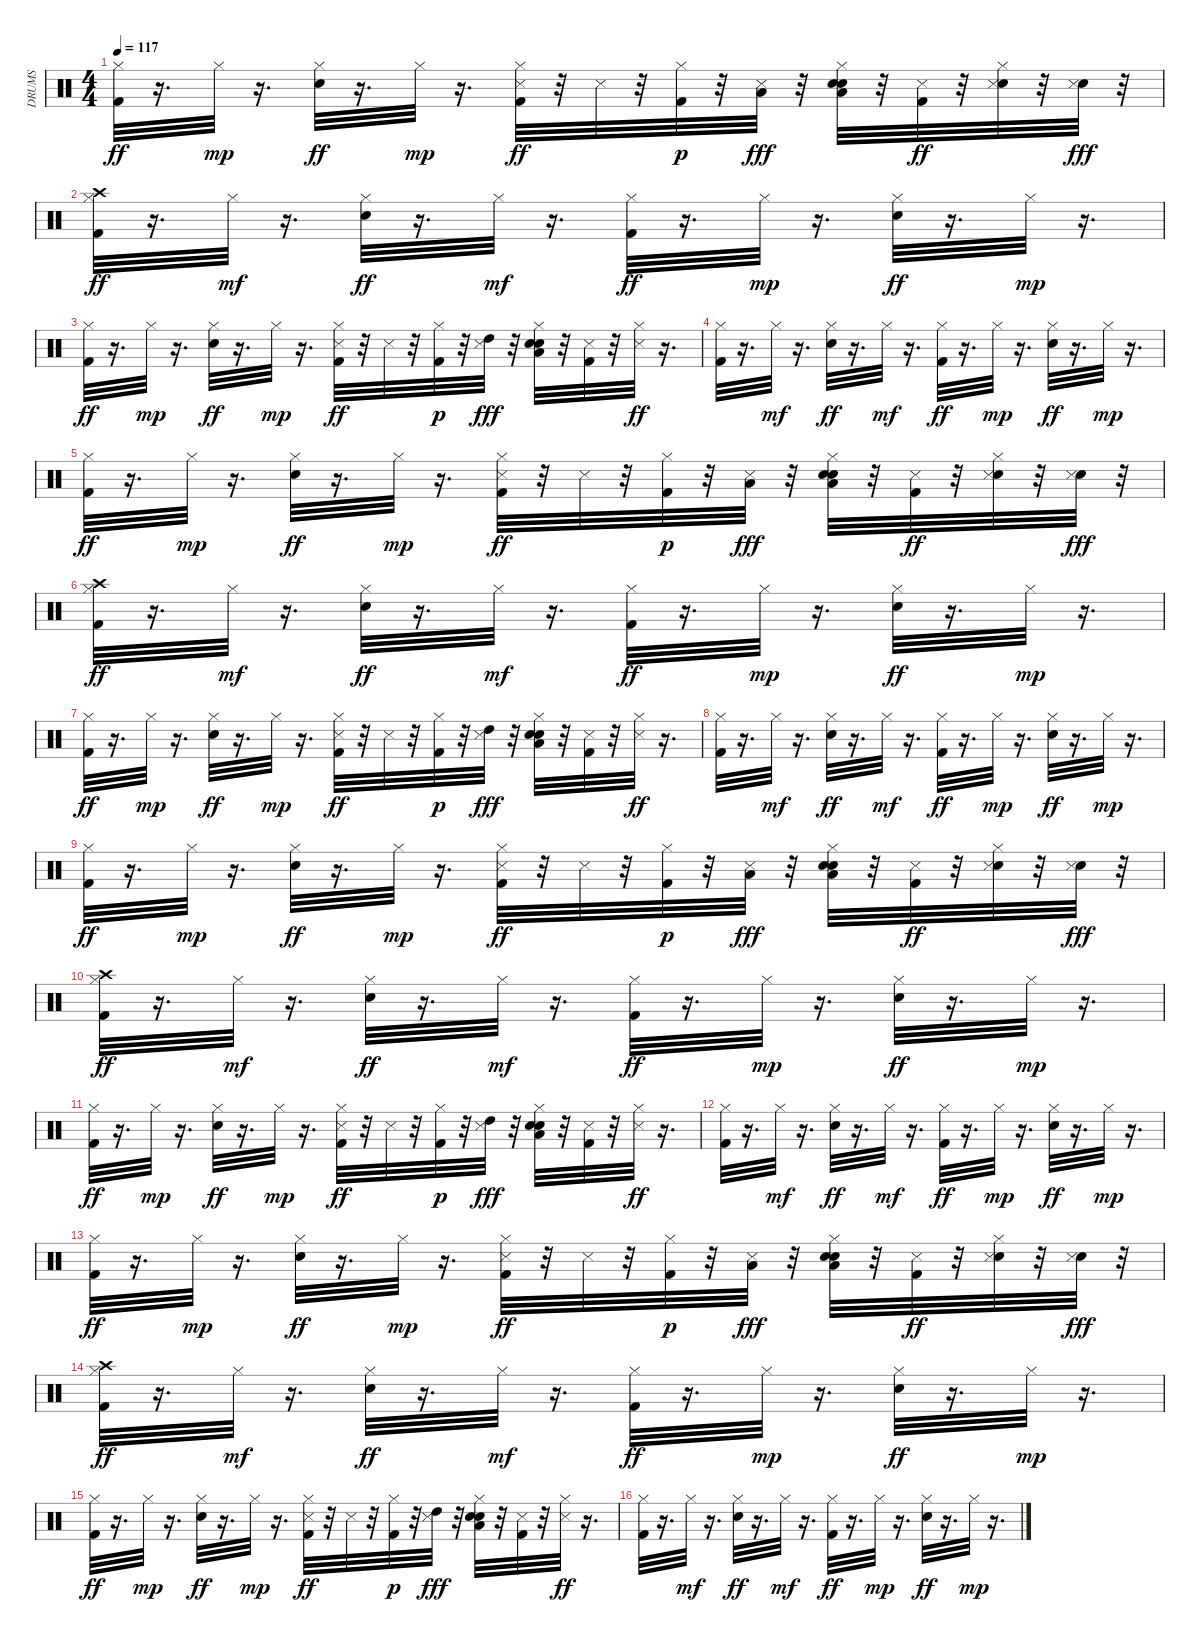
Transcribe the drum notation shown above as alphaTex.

\track ("DRUMS" "DRUMS") {instrument percussion}
\staff {score}
\articulation defaults
\ts (4 4)
\tempo 117
\clef neutral
\ks c
("Kick (hit) 2" "Hi-Hat (closed)").32{dy ff} r.16{d} "Hi-Hat (closed)".32{dy mp} r.16{d} ("Snare (hit) 2" "Hi-Hat (closed)").32{dy ff} r.16{d} "Hi-Hat (closed)".32{dy mp} r.16{d} ("Kick (hit) 2" "Hi-Hat (closed)" "Snare (side stick) 3").32{dy ff} r.32 "Snare (side stick) 3".32 r.32 ("Kick (hit) 2" "Hi-Hat (closed)").32{dy p} r.32 ("Low Tom (hit)" "Snare (side stick) 3").32{dy fff} r.32 ("Snare (hit) 2" "Hi-Hat (closed)" "Low Floor Tom (hit)" "Hand Clap (hit)").32 r.32 ("Kick (hit) 2" "Snare (side stick) 3").32{dy ff} r.32 ("Snare (hit) 2" "Hi-Hat (closed)" "Snare (side stick) 3").32 r.32 ("Snare (hit) 2" "Snare (side stick) 3").32{dy fff} r.32 |
("Crash high (hit)" "Kick (hit) 2" "Hi-Hat (closed)").32{dy ff} r.16{d} "Hi-Hat (closed)".32{dy mf} r.16{d} ("Snare (hit) 2" "Hi-Hat (closed)").32{dy ff} r.16{d} "Hi-Hat (closed)".32{dy mf} r.16{d} ("Kick (hit) 2" "Hi-Hat (closed)").32{dy ff} r.16{d} "Hi-Hat (closed)".32{dy mp} r.16{d} ("Snare (hit) 2" "Hi-Hat (closed)").32{dy ff} r.16{d} "Hi-Hat (closed)".32{dy mp} r.16{d} |
("Kick (hit) 2" "Hi-Hat (closed)").32{dy ff} r.16{d} "Hi-Hat (closed)".32{dy mp} r.16{d} ("Snare (hit) 2" "Hi-Hat (closed)").32{dy ff} r.16{d} "Hi-Hat (closed)".32{dy mp} r.16{d} ("Kick (hit) 2" "Hi-Hat (closed)" "Snare (side stick) 3").32{dy ff} r.32 "Snare (side stick) 3".32 r.32 ("Kick (hit) 2" "Hi-Hat (closed)").32{dy p} r.32 ("High Tom (hit)" "Snare (side stick) 3").32{dy fff} r.32 ("Snare (hit) 2" "Hi-Hat (closed)" "Low Tom (hit)" "Hand Clap (hit)").32 r.32 ("Kick (hit) 2" "Snare (side stick) 3").32 r.32 ("Hi-Hat (closed)" "Snare (side stick) 3").32{dy ff} r.16{d} |
("Kick (hit) 2" "Hi-Hat (closed)").32 r.16{d} "Hi-Hat (closed)".32{dy mf} r.16{d} ("Snare (hit) 2" "Hi-Hat (closed)").32{dy ff} r.16{d} "Hi-Hat (closed)".32{dy mf} r.16{d} ("Kick (hit) 2" "Hi-Hat (closed)").32{dy ff} r.16{d} "Hi-Hat (closed)".32{dy mp} r.16{d} ("Snare (hit) 2" "Hi-Hat (closed)").32{dy ff} r.16{d} "Hi-Hat (closed)".32{dy mp} r.16{d} |
("Kick (hit) 2" "Hi-Hat (closed)").32{dy ff} r.16{d} "Hi-Hat (closed)".32{dy mp} r.16{d} ("Snare (hit) 2" "Hi-Hat (closed)").32{dy ff} r.16{d} "Hi-Hat (closed)".32{dy mp} r.16{d} ("Kick (hit) 2" "Hi-Hat (closed)" "Snare (side stick) 3").32{dy ff} r.32 "Snare (side stick) 3".32 r.32 ("Kick (hit) 2" "Hi-Hat (closed)").32{dy p} r.32 ("Low Tom (hit)" "Snare (side stick) 3").32{dy fff} r.32 ("Snare (hit) 2" "Hi-Hat (closed)" "Low Floor Tom (hit)" "Hand Clap (hit)").32 r.32 ("Kick (hit) 2" "Snare (side stick) 3").32{dy ff} r.32 ("Snare (hit) 2" "Hi-Hat (closed)" "Snare (side stick) 3").32 r.32 ("Snare (hit) 2" "Snare (side stick) 3").32{dy fff} r.32 |
("Crash high (hit)" "Kick (hit) 2" "Hi-Hat (closed)").32{dy ff} r.16{d} "Hi-Hat (closed)".32{dy mf} r.16{d} ("Snare (hit) 2" "Hi-Hat (closed)").32{dy ff} r.16{d} "Hi-Hat (closed)".32{dy mf} r.16{d} ("Kick (hit) 2" "Hi-Hat (closed)").32{dy ff} r.16{d} "Hi-Hat (closed)".32{dy mp} r.16{d} ("Snare (hit) 2" "Hi-Hat (closed)").32{dy ff} r.16{d} "Hi-Hat (closed)".32{dy mp} r.16{d} |
("Kick (hit) 2" "Hi-Hat (closed)").32{dy ff} r.16{d} "Hi-Hat (closed)".32{dy mp} r.16{d} ("Snare (hit) 2" "Hi-Hat (closed)").32{dy ff} r.16{d} "Hi-Hat (closed)".32{dy mp} r.16{d} ("Kick (hit) 2" "Hi-Hat (closed)" "Snare (side stick) 3").32{dy ff} r.32 "Snare (side stick) 3".32 r.32 ("Kick (hit) 2" "Hi-Hat (closed)").32{dy p} r.32 ("High Tom (hit)" "Snare (side stick) 3").32{dy fff} r.32 ("Snare (hit) 2" "Hi-Hat (closed)" "Low Tom (hit)" "Hand Clap (hit)").32 r.32 ("Kick (hit) 2" "Snare (side stick) 3").32 r.32 ("Hi-Hat (closed)" "Snare (side stick) 3").32{dy ff} r.16{d} |
("Kick (hit) 2" "Hi-Hat (closed)").32 r.16{d} "Hi-Hat (closed)".32{dy mf} r.16{d} ("Snare (hit) 2" "Hi-Hat (closed)").32{dy ff} r.16{d} "Hi-Hat (closed)".32{dy mf} r.16{d} ("Kick (hit) 2" "Hi-Hat (closed)").32{dy ff} r.16{d} "Hi-Hat (closed)".32{dy mp} r.16{d} ("Snare (hit) 2" "Hi-Hat (closed)").32{dy ff} r.16{d} "Hi-Hat (closed)".32{dy mp} r.16{d} |
("Kick (hit) 2" "Hi-Hat (closed)").32{dy ff} r.16{d} "Hi-Hat (closed)".32{dy mp} r.16{d} ("Snare (hit) 2" "Hi-Hat (closed)").32{dy ff} r.16{d} "Hi-Hat (closed)".32{dy mp} r.16{d} ("Kick (hit) 2" "Hi-Hat (closed)" "Snare (side stick) 3").32{dy ff} r.32 "Snare (side stick) 3".32 r.32 ("Kick (hit) 2" "Hi-Hat (closed)").32{dy p} r.32 ("Low Tom (hit)" "Snare (side stick) 3").32{dy fff} r.32 ("Snare (hit) 2" "Hi-Hat (closed)" "Low Floor Tom (hit)" "Hand Clap (hit)").32 r.32 ("Kick (hit) 2" "Snare (side stick) 3").32{dy ff} r.32 ("Snare (hit) 2" "Hi-Hat (closed)" "Snare (side stick) 3").32 r.32 ("Snare (hit) 2" "Snare (side stick) 3").32{dy fff} r.32 |
("Crash high (hit)" "Kick (hit) 2" "Hi-Hat (closed)").32{dy ff} r.16{d} "Hi-Hat (closed)".32{dy mf} r.16{d} ("Snare (hit) 2" "Hi-Hat (closed)").32{dy ff} r.16{d} "Hi-Hat (closed)".32{dy mf} r.16{d} ("Kick (hit) 2" "Hi-Hat (closed)").32{dy ff} r.16{d} "Hi-Hat (closed)".32{dy mp} r.16{d} ("Snare (hit) 2" "Hi-Hat (closed)").32{dy ff} r.16{d} "Hi-Hat (closed)".32{dy mp} r.16{d} |
("Kick (hit) 2" "Hi-Hat (closed)").32{dy ff} r.16{d} "Hi-Hat (closed)".32{dy mp} r.16{d} ("Snare (hit) 2" "Hi-Hat (closed)").32{dy ff} r.16{d} "Hi-Hat (closed)".32{dy mp} r.16{d} ("Kick (hit) 2" "Hi-Hat (closed)" "Snare (side stick) 3").32{dy ff} r.32 "Snare (side stick) 3".32 r.32 ("Kick (hit) 2" "Hi-Hat (closed)").32{dy p} r.32 ("High Tom (hit)" "Snare (side stick) 3").32{dy fff} r.32 ("Snare (hit) 2" "Hi-Hat (closed)" "Low Tom (hit)" "Hand Clap (hit)").32 r.32 ("Kick (hit) 2" "Snare (side stick) 3").32 r.32 ("Hi-Hat (closed)" "Snare (side stick) 3").32{dy ff} r.16{d} |
("Kick (hit) 2" "Hi-Hat (closed)").32 r.16{d} "Hi-Hat (closed)".32{dy mf} r.16{d} ("Snare (hit) 2" "Hi-Hat (closed)").32{dy ff} r.16{d} "Hi-Hat (closed)".32{dy mf} r.16{d} ("Kick (hit) 2" "Hi-Hat (closed)").32{dy ff} r.16{d} "Hi-Hat (closed)".32{dy mp} r.16{d} ("Snare (hit) 2" "Hi-Hat (closed)").32{dy ff} r.16{d} "Hi-Hat (closed)".32{dy mp} r.16{d} |
("Kick (hit) 2" "Hi-Hat (closed)").32{dy ff} r.16{d} "Hi-Hat (closed)".32{dy mp} r.16{d} ("Snare (hit) 2" "Hi-Hat (closed)").32{dy ff} r.16{d} "Hi-Hat (closed)".32{dy mp} r.16{d} ("Kick (hit) 2" "Hi-Hat (closed)" "Snare (side stick) 3").32{dy ff} r.32 "Snare (side stick) 3".32 r.32 ("Kick (hit) 2" "Hi-Hat (closed)").32{dy p} r.32 ("Low Tom (hit)" "Snare (side stick) 3").32{dy fff} r.32 ("Snare (hit) 2" "Hi-Hat (closed)" "Low Floor Tom (hit)" "Hand Clap (hit)").32 r.32 ("Kick (hit) 2" "Snare (side stick) 3").32{dy ff} r.32 ("Snare (hit) 2" "Hi-Hat (closed)" "Snare (side stick) 3").32 r.32 ("Snare (hit) 2" "Snare (side stick) 3").32{dy fff} r.32 |
("Crash high (hit)" "Kick (hit) 2" "Hi-Hat (closed)").32{dy ff} r.16{d} "Hi-Hat (closed)".32{dy mf} r.16{d} ("Snare (hit) 2" "Hi-Hat (closed)").32{dy ff} r.16{d} "Hi-Hat (closed)".32{dy mf} r.16{d} ("Kick (hit) 2" "Hi-Hat (closed)").32{dy ff} r.16{d} "Hi-Hat (closed)".32{dy mp} r.16{d} ("Snare (hit) 2" "Hi-Hat (closed)").32{dy ff} r.16{d} "Hi-Hat (closed)".32{dy mp} r.16{d} |
("Kick (hit) 2" "Hi-Hat (closed)").32{dy ff} r.16{d} "Hi-Hat (closed)".32{dy mp} r.16{d} ("Snare (hit) 2" "Hi-Hat (closed)").32{dy ff} r.16{d} "Hi-Hat (closed)".32{dy mp} r.16{d} ("Kick (hit) 2" "Hi-Hat (closed)" "Snare (side stick) 3").32{dy ff} r.32 "Snare (side stick) 3".32 r.32 ("Kick (hit) 2" "Hi-Hat (closed)").32{dy p} r.32 ("High Tom (hit)" "Snare (side stick) 3").32{dy fff} r.32 ("Snare (hit) 2" "Hi-Hat (closed)" "Low Tom (hit)" "Hand Clap (hit)").32 r.32 ("Kick (hit) 2" "Snare (side stick) 3").32 r.32 ("Hi-Hat (closed)" "Snare (side stick) 3").32{dy ff} r.16{d} |
("Kick (hit) 2" "Hi-Hat (closed)").32 r.16{d} "Hi-Hat (closed)".32{dy mf} r.16{d} ("Snare (hit) 2" "Hi-Hat (closed)").32{dy ff} r.16{d} "Hi-Hat (closed)".32{dy mf} r.16{d} ("Kick (hit) 2" "Hi-Hat (closed)").32{dy ff} r.16{d} "Hi-Hat (closed)".32{dy mp} r.16{d} ("Snare (hit) 2" "Hi-Hat (closed)").32{dy ff} r.16{d} "Hi-Hat (closed)".32{dy mp} r.16{d}
